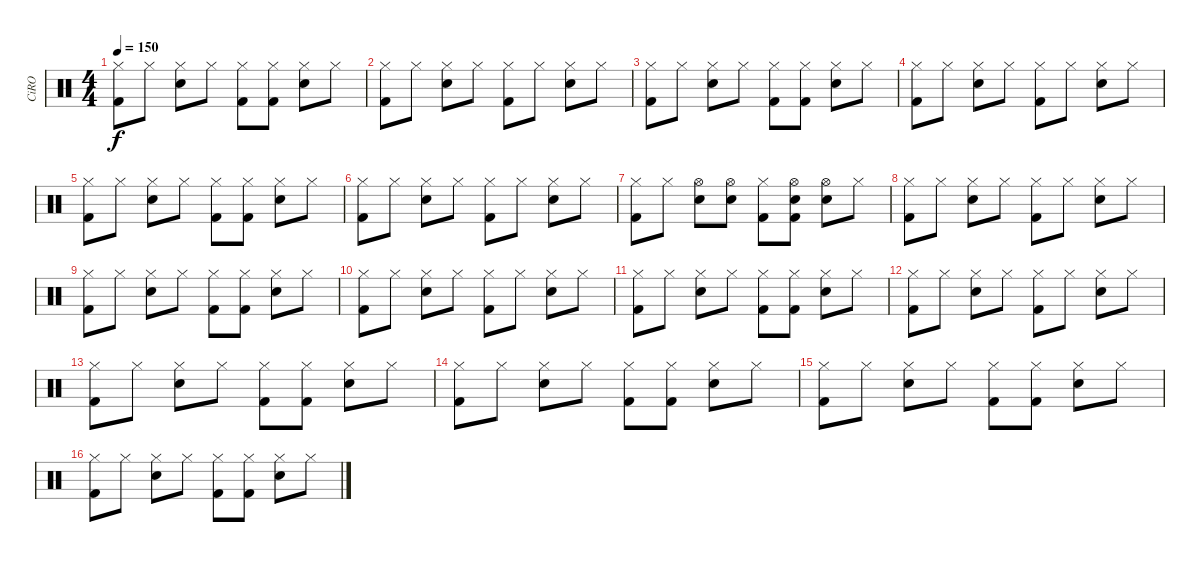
\track ("CiRO" "CiRO") {instrument percussion}
\staff {score}
\articulation defaults
\ts (4 4)
\tempo 150
\clef neutral
\ks c
("Hi-Hat (closed)" "Kick (hit) 2").8{dy f} "Hi-Hat (closed)".8 ("Hi-Hat (closed)" "Electric Snare (hit)").8 "Hi-Hat (closed)".8 ("Hi-Hat (closed)" "Kick (hit) 2").8 ("Hi-Hat (closed)" "Kick (hit) 2").8 ("Hi-Hat (closed)" "Electric Snare (hit)").8 "Hi-Hat (closed)".8 |
("Hi-Hat (closed)" "Kick (hit) 2").8 "Hi-Hat (closed)".8 ("Hi-Hat (closed)" "Electric Snare (hit)").8 "Hi-Hat (closed)".8 ("Hi-Hat (closed)" "Kick (hit) 2").8 "Hi-Hat (closed)".8 ("Hi-Hat (closed)" "Electric Snare (hit)").8 "Hi-Hat (closed)".8 |
("Hi-Hat (closed)" "Kick (hit) 2").8 "Hi-Hat (closed)".8 ("Hi-Hat (closed)" "Electric Snare (hit)").8 "Hi-Hat (closed)".8 ("Hi-Hat (closed)" "Kick (hit) 2").8 ("Hi-Hat (closed)" "Kick (hit) 2").8 ("Hi-Hat (closed)" "Electric Snare (hit)").8 "Hi-Hat (closed)".8 |
("Hi-Hat (closed)" "Kick (hit) 2").8 "Hi-Hat (closed)".8 ("Hi-Hat (closed)" "Electric Snare (hit)").8 "Hi-Hat (closed)".8 ("Hi-Hat (closed)" "Kick (hit) 2").8 "Hi-Hat (closed)".8 ("Hi-Hat (closed)" "Electric Snare (hit)").8 "Hi-Hat (closed)".8 |
("Hi-Hat (closed)" "Kick (hit) 2").8 "Hi-Hat (closed)".8 ("Hi-Hat (closed)" "Electric Snare (hit)").8 "Hi-Hat (closed)".8 ("Hi-Hat (closed)" "Kick (hit) 2").8 ("Hi-Hat (closed)" "Kick (hit) 2").8 ("Hi-Hat (closed)" "Electric Snare (hit)").8 "Hi-Hat (closed)".8 |
("Hi-Hat (closed)" "Kick (hit) 2").8 "Hi-Hat (closed)".8 ("Hi-Hat (closed)" "Electric Snare (hit)").8 "Hi-Hat (closed)".8 ("Hi-Hat (closed)" "Kick (hit) 2").8 "Hi-Hat (closed)".8 ("Hi-Hat (closed)" "Electric Snare (hit)").8 "Hi-Hat (closed)".8 |
("Hi-Hat (closed)" "Kick (hit) 2").8 "Hi-Hat (closed)".8 ("Hi-Hat (open)" "Electric Snare (hit)").8 ("Hi-Hat (open)" "Electric Snare (hit)").8 ("Hi-Hat (closed)" "Kick (hit) 2").8 ("Hi-Hat (open)" "Electric Snare (hit)" "Kick (hit) 2").8 ("Hi-Hat (open)" "Electric Snare (hit)").8 "Hi-Hat (closed)".8 |
("Hi-Hat (closed)" "Kick (hit) 2").8 "Hi-Hat (closed)".8 ("Hi-Hat (closed)" "Electric Snare (hit)").8 "Hi-Hat (closed)".8 ("Hi-Hat (closed)" "Kick (hit) 2").8 "Hi-Hat (closed)".8 ("Hi-Hat (closed)" "Electric Snare (hit)").8 "Hi-Hat (closed)".8 |
("Hi-Hat (closed)" "Kick (hit) 2").8 "Hi-Hat (closed)".8 ("Hi-Hat (closed)" "Electric Snare (hit)").8 "Hi-Hat (closed)".8 ("Hi-Hat (closed)" "Kick (hit) 2").8 ("Hi-Hat (closed)" "Kick (hit) 2").8 ("Hi-Hat (closed)" "Electric Snare (hit)").8 "Hi-Hat (closed)".8 |
("Hi-Hat (closed)" "Kick (hit) 2").8 "Hi-Hat (closed)".8 ("Hi-Hat (closed)" "Electric Snare (hit)").8 "Hi-Hat (closed)".8 ("Hi-Hat (closed)" "Kick (hit) 2").8 "Hi-Hat (closed)".8 ("Hi-Hat (closed)" "Electric Snare (hit)").8 "Hi-Hat (closed)".8 |
("Hi-Hat (closed)" "Kick (hit) 2").8 "Hi-Hat (closed)".8 ("Hi-Hat (closed)" "Electric Snare (hit)").8 "Hi-Hat (closed)".8 ("Hi-Hat (closed)" "Kick (hit) 2").8 ("Hi-Hat (closed)" "Kick (hit) 2").8 ("Hi-Hat (closed)" "Electric Snare (hit)").8 "Hi-Hat (closed)".8 |
("Hi-Hat (closed)" "Kick (hit) 2").8 "Hi-Hat (closed)".8 ("Hi-Hat (closed)" "Electric Snare (hit)").8 "Hi-Hat (closed)".8 ("Hi-Hat (closed)" "Kick (hit) 2").8 "Hi-Hat (closed)".8 ("Hi-Hat (closed)" "Electric Snare (hit)").8 "Hi-Hat (closed)".8 |
("Hi-Hat (closed)" "Kick (hit) 2").8 "Hi-Hat (closed)".8 ("Hi-Hat (closed)" "Electric Snare (hit)").8 "Hi-Hat (closed)".8 ("Hi-Hat (closed)" "Kick (hit) 2").8 ("Hi-Hat (closed)" "Kick (hit) 2").8 ("Hi-Hat (closed)" "Electric Snare (hit)").8 "Hi-Hat (closed)".8 |
("Hi-Hat (closed)" "Kick (hit) 2").8 "Hi-Hat (closed)".8 ("Hi-Hat (closed)" "Electric Snare (hit)").8 "Hi-Hat (closed)".8 ("Hi-Hat (closed)" "Kick (hit) 2").8 ("Hi-Hat (closed)" "Kick (hit) 2").8 ("Hi-Hat (closed)" "Electric Snare (hit)").8 "Hi-Hat (closed)".8 |
("Hi-Hat (closed)" "Kick (hit) 2").8 "Hi-Hat (closed)".8 ("Hi-Hat (closed)" "Electric Snare (hit)").8 "Hi-Hat (closed)".8 ("Hi-Hat (closed)" "Kick (hit) 2").8 ("Hi-Hat (closed)" "Kick (hit) 2").8 ("Hi-Hat (closed)" "Electric Snare (hit)").8 "Hi-Hat (closed)".8 |
("Hi-Hat (closed)" "Kick (hit) 2").8 "Hi-Hat (closed)".8 ("Hi-Hat (closed)" "Electric Snare (hit)").8 "Hi-Hat (closed)".8 ("Hi-Hat (closed)" "Kick (hit) 2").8 ("Hi-Hat (closed)" "Kick (hit) 2").8 ("Hi-Hat (closed)" "Electric Snare (hit)").8 "Hi-Hat (closed)".8
